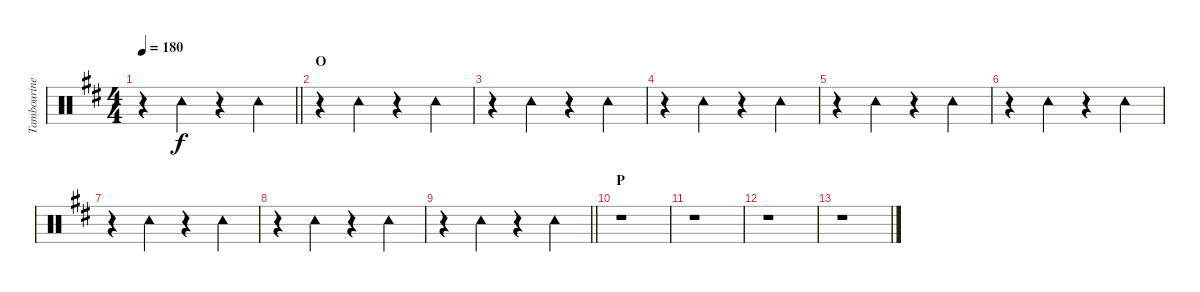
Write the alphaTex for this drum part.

\track ("Tambourine" "Tambourine") {instrument percussion}
\staff {score}
\articulation defaults
\ts (4 4)
\tempo 180
\clef neutral
\barLineRight lightlight
\ks d
r.4{dy f} "Tambourine (hit)".4 r.4 "Tambourine (hit)".4 |
\section ("" "O")
r.4 "Tambourine (hit)".4 r.4 "Tambourine (hit)".4 |
r.4 "Tambourine (hit)".4 r.4 "Tambourine (hit)".4 |
r.4 "Tambourine (hit)".4 r.4 "Tambourine (hit)".4 |
r.4 "Tambourine (hit)".4 r.4 "Tambourine (hit)".4 |
r.4 "Tambourine (hit)".4 r.4 "Tambourine (hit)".4 |
r.4 "Tambourine (hit)".4 r.4 "Tambourine (hit)".4 |
r.4 "Tambourine (hit)".4 r.4 "Tambourine (hit)".4 |
\barLineRight lightlight
r.4 "Tambourine (hit)".4 r.4 "Tambourine (hit)".4 |
\section ("" "P")
r.1 |
r.1 |
r.1 |
r.1
